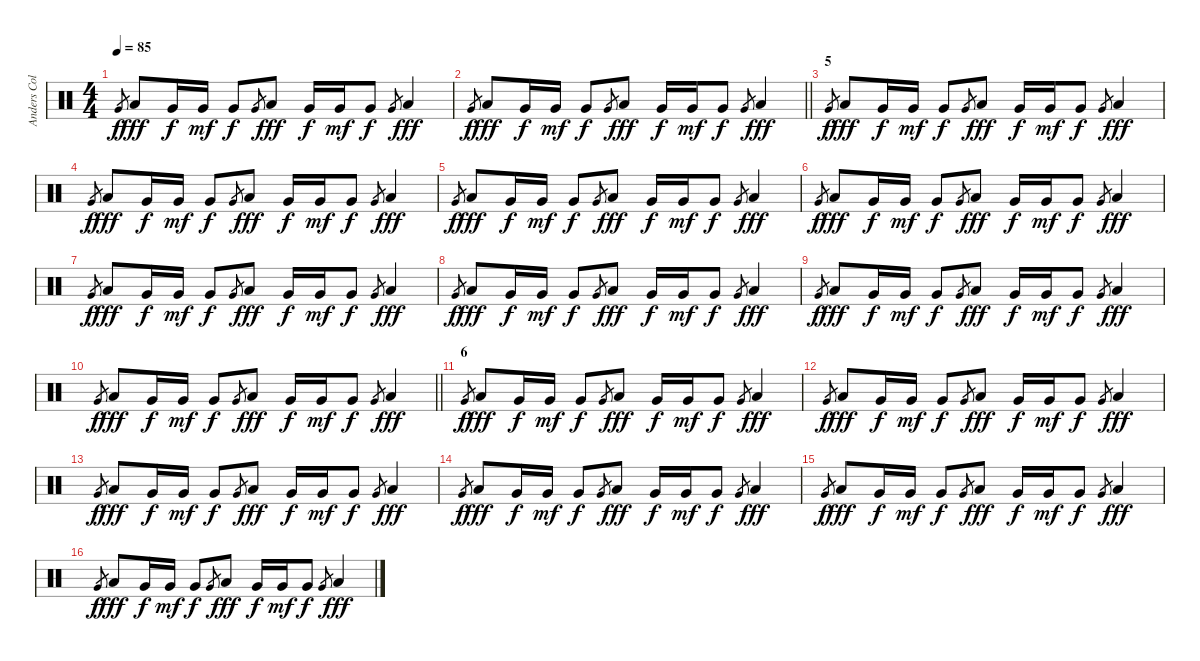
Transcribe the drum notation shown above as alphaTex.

\track ("Anders Colsefni" "Anders Col") {instrument percussion}
\staff {score}
\articulation defaults
\ts (4 4)
\tempo 85
\clef neutral
\ks c "Very Low Tom (hit)".8{gr dy f} "Low Tom (hit)".8{dy fff} "Very Low Tom (hit)".16{dy f} "Very Low Tom (hit)".16{dy mf} "Very Low Tom (hit)".8{dy f} "Very Low Tom (hit)".8{gr} "Low Tom (hit)".8{dy fff} "Very Low Tom (hit)".16{dy f} "Very Low Tom (hit)".16{dy mf} "Very Low Tom (hit)".8{dy f} "Very Low Tom (hit)".8{gr} "Low Tom (hit)".4{dy fff}
|
\barLineRight lightlight "Very Low Tom (hit)".8{gr dy f} "Low Tom (hit)".8{dy fff} "Very Low Tom (hit)".16{dy f} "Very Low Tom (hit)".16{dy mf} "Very Low Tom (hit)".8{dy f} "Very Low Tom (hit)".8{gr} "Low Tom (hit)".8{dy fff} "Very Low Tom (hit)".16{dy f} "Very Low Tom (hit)".16{dy mf} "Very Low Tom (hit)".8{dy f} "Very Low Tom (hit)".8{gr} "Low Tom (hit)".4{dy fff}
|
\section ("" "5")
"Very Low Tom (hit)".8{gr dy f} "Low Tom (hit)".8{dy fff} "Very Low Tom (hit)".16{dy f} "Very Low Tom (hit)".16{dy mf} "Very Low Tom (hit)".8{dy f} "Very Low Tom (hit)".8{gr} "Low Tom (hit)".8{dy fff} "Very Low Tom (hit)".16{dy f} "Very Low Tom (hit)".16{dy mf} "Very Low Tom (hit)".8{dy f} "Very Low Tom (hit)".8{gr} "Low Tom (hit)".4{dy fff} |
"Very Low Tom (hit)".8{gr dy f} "Low Tom (hit)".8{dy fff} "Very Low Tom (hit)".16{dy f} "Very Low Tom (hit)".16{dy mf} "Very Low Tom (hit)".8{dy f} "Very Low Tom (hit)".8{gr} "Low Tom (hit)".8{dy fff} "Very Low Tom (hit)".16{dy f} "Very Low Tom (hit)".16{dy mf} "Very Low Tom (hit)".8{dy f} "Very Low Tom (hit)".8{gr} "Low Tom (hit)".4{dy fff} |
"Very Low Tom (hit)".8{gr dy f} "Low Tom (hit)".8{dy fff} "Very Low Tom (hit)".16{dy f} "Very Low Tom (hit)".16{dy mf} "Very Low Tom (hit)".8{dy f} "Very Low Tom (hit)".8{gr} "Low Tom (hit)".8{dy fff} "Very Low Tom (hit)".16{dy f} "Very Low Tom (hit)".16{dy mf} "Very Low Tom (hit)".8{dy f} "Very Low Tom (hit)".8{gr} "Low Tom (hit)".4{dy fff} |
"Very Low Tom (hit)".8{gr dy f} "Low Tom (hit)".8{dy fff} "Very Low Tom (hit)".16{dy f} "Very Low Tom (hit)".16{dy mf} "Very Low Tom (hit)".8{dy f} "Very Low Tom (hit)".8{gr} "Low Tom (hit)".8{dy fff} "Very Low Tom (hit)".16{dy f} "Very Low Tom (hit)".16{dy mf} "Very Low Tom (hit)".8{dy f} "Very Low Tom (hit)".8{gr} "Low Tom (hit)".4{dy fff} |
"Very Low Tom (hit)".8{gr dy f} "Low Tom (hit)".8{dy fff} "Very Low Tom (hit)".16{dy f} "Very Low Tom (hit)".16{dy mf} "Very Low Tom (hit)".8{dy f} "Very Low Tom (hit)".8{gr} "Low Tom (hit)".8{dy fff} "Very Low Tom (hit)".16{dy f} "Very Low Tom (hit)".16{dy mf} "Very Low Tom (hit)".8{dy f} "Very Low Tom (hit)".8{gr} "Low Tom (hit)".4{dy fff} |
"Very Low Tom (hit)".8{gr dy f} "Low Tom (hit)".8{dy fff} "Very Low Tom (hit)".16{dy f} "Very Low Tom (hit)".16{dy mf} "Very Low Tom (hit)".8{dy f} "Very Low Tom (hit)".8{gr} "Low Tom (hit)".8{dy fff} "Very Low Tom (hit)".16{dy f} "Very Low Tom (hit)".16{dy mf} "Very Low Tom (hit)".8{dy f} "Very Low Tom (hit)".8{gr} "Low Tom (hit)".4{dy fff} |
"Very Low Tom (hit)".8{gr dy f} "Low Tom (hit)".8{dy fff} "Very Low Tom (hit)".16{dy f} "Very Low Tom (hit)".16{dy mf} "Very Low Tom (hit)".8{dy f} "Very Low Tom (hit)".8{gr} "Low Tom (hit)".8{dy fff} "Very Low Tom (hit)".16{dy f} "Very Low Tom (hit)".16{dy mf} "Very Low Tom (hit)".8{dy f} "Very Low Tom (hit)".8{gr} "Low Tom (hit)".4{dy fff} |
\barLineRight lightlight "Very Low Tom (hit)".8{gr dy f} "Low Tom (hit)".8{dy fff} "Very Low Tom (hit)".16{dy f} "Very Low Tom (hit)".16{dy mf} "Very Low Tom (hit)".8{dy f} "Very Low Tom (hit)".8{gr} "Low Tom (hit)".8{dy fff} "Very Low Tom (hit)".16{dy f} "Very Low Tom (hit)".16{dy mf} "Very Low Tom (hit)".8{dy f} "Very Low Tom (hit)".8{gr} "Low Tom (hit)".4{dy fff}
|
\section ("" "6")
"Very Low Tom (hit)".8{gr dy f} "Low Tom (hit)".8{dy fff} "Very Low Tom (hit)".16{dy f} "Very Low Tom (hit)".16{dy mf} "Very Low Tom (hit)".8{dy f} "Very Low Tom (hit)".8{gr} "Low Tom (hit)".8{dy fff} "Very Low Tom (hit)".16{dy f} "Very Low Tom (hit)".16{dy mf} "Very Low Tom (hit)".8{dy f} "Very Low Tom (hit)".8{gr} "Low Tom (hit)".4{dy fff} |
"Very Low Tom (hit)".8{gr dy f} "Low Tom (hit)".8{dy fff} "Very Low Tom (hit)".16{dy f} "Very Low Tom (hit)".16{dy mf} "Very Low Tom (hit)".8{dy f} "Very Low Tom (hit)".8{gr} "Low Tom (hit)".8{dy fff} "Very Low Tom (hit)".16{dy f} "Very Low Tom (hit)".16{dy mf} "Very Low Tom (hit)".8{dy f} "Very Low Tom (hit)".8{gr} "Low Tom (hit)".4{dy fff} |
"Very Low Tom (hit)".8{gr dy f} "Low Tom (hit)".8{dy fff} "Very Low Tom (hit)".16{dy f} "Very Low Tom (hit)".16{dy mf} "Very Low Tom (hit)".8{dy f} "Very Low Tom (hit)".8{gr} "Low Tom (hit)".8{dy fff} "Very Low Tom (hit)".16{dy f} "Very Low Tom (hit)".16{dy mf} "Very Low Tom (hit)".8{dy f} "Very Low Tom (hit)".8{gr} "Low Tom (hit)".4{dy fff} |
"Very Low Tom (hit)".8{gr dy f} "Low Tom (hit)".8{dy fff} "Very Low Tom (hit)".16{dy f} "Very Low Tom (hit)".16{dy mf} "Very Low Tom (hit)".8{dy f} "Very Low Tom (hit)".8{gr} "Low Tom (hit)".8{dy fff} "Very Low Tom (hit)".16{dy f} "Very Low Tom (hit)".16{dy mf} "Very Low Tom (hit)".8{dy f} "Very Low Tom (hit)".8{gr} "Low Tom (hit)".4{dy fff} |
"Very Low Tom (hit)".8{gr dy f} "Low Tom (hit)".8{dy fff} "Very Low Tom (hit)".16{dy f} "Very Low Tom (hit)".16{dy mf} "Very Low Tom (hit)".8{dy f} "Very Low Tom (hit)".8{gr} "Low Tom (hit)".8{dy fff} "Very Low Tom (hit)".16{dy f} "Very Low Tom (hit)".16{dy mf} "Very Low Tom (hit)".8{dy f} "Very Low Tom (hit)".8{gr} "Low Tom (hit)".4{dy fff} |
"Very Low Tom (hit)".8{gr dy f} "Low Tom (hit)".8{dy fff} "Very Low Tom (hit)".16{dy f} "Very Low Tom (hit)".16{dy mf} "Very Low Tom (hit)".8{dy f} "Very Low Tom (hit)".8{gr} "Low Tom (hit)".8{dy fff} "Very Low Tom (hit)".16{dy f} "Very Low Tom (hit)".16{dy mf} "Very Low Tom (hit)".8{dy f} "Very Low Tom (hit)".8{gr} "Low Tom (hit)".4{dy fff}
